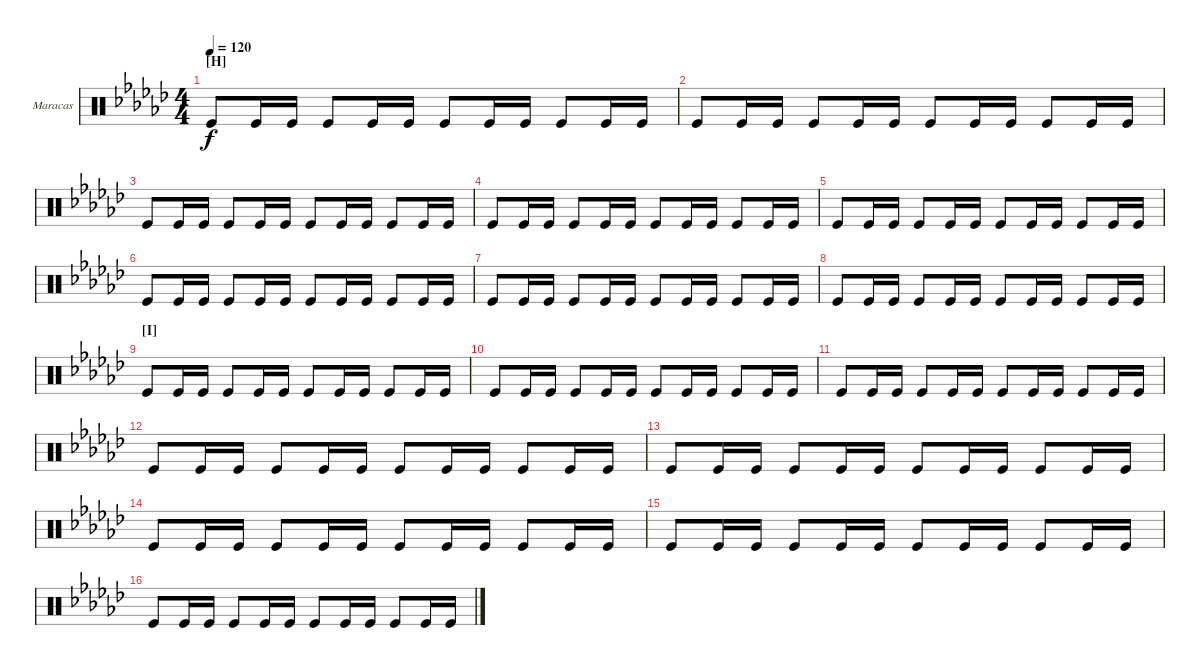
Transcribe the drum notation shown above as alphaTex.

\defaultSystemsLayout 4
\bracketExtendMode groupsimilarinstruments
\firstSystemTrackNameOrientation horizontal
\otherSystemsTrackNameOrientation horizontal
\track ("Maracas" "Maracas") {instrument percussion}
\staff {score}
\articulation defaults
\ts (4 4)
\section ("H" "")
\tempo 120
\clef neutral
\ks ebminor "Kick (hit)".8{dy f} "Kick (hit)".16 "Kick (hit)".16 "Kick (hit)".8 "Kick (hit)".16 "Kick (hit)".16 "Kick (hit)".8 "Kick (hit)".16 "Kick (hit)".16 "Kick (hit)".8 "Kick (hit)".16 "Kick (hit)".16
|
"Kick (hit)".8 "Kick (hit)".16 "Kick (hit)".16 "Kick (hit)".8 "Kick (hit)".16 "Kick (hit)".16 "Kick (hit)".8 "Kick (hit)".16 "Kick (hit)".16 "Kick (hit)".8 "Kick (hit)".16 "Kick (hit)".16 |
"Kick (hit)".8 "Kick (hit)".16 "Kick (hit)".16 "Kick (hit)".8 "Kick (hit)".16 "Kick (hit)".16 "Kick (hit)".8 "Kick (hit)".16 "Kick (hit)".16 "Kick (hit)".8 "Kick (hit)".16 "Kick (hit)".16 |
"Kick (hit)".8 "Kick (hit)".16 "Kick (hit)".16 "Kick (hit)".8 "Kick (hit)".16 "Kick (hit)".16 "Kick (hit)".8 "Kick (hit)".16 "Kick (hit)".16 "Kick (hit)".8 "Kick (hit)".16 "Kick (hit)".16 |
"Kick (hit)".8 "Kick (hit)".16 "Kick (hit)".16 "Kick (hit)".8 "Kick (hit)".16 "Kick (hit)".16 "Kick (hit)".8 "Kick (hit)".16 "Kick (hit)".16 "Kick (hit)".8 "Kick (hit)".16 "Kick (hit)".16 |
"Kick (hit)".8 "Kick (hit)".16 "Kick (hit)".16 "Kick (hit)".8 "Kick (hit)".16 "Kick (hit)".16 "Kick (hit)".8 "Kick (hit)".16 "Kick (hit)".16 "Kick (hit)".8 "Kick (hit)".16 "Kick (hit)".16 |
"Kick (hit)".8 "Kick (hit)".16 "Kick (hit)".16 "Kick (hit)".8 "Kick (hit)".16 "Kick (hit)".16 "Kick (hit)".8 "Kick (hit)".16 "Kick (hit)".16 "Kick (hit)".8 "Kick (hit)".16 "Kick (hit)".16 |
"Kick (hit)".8 "Kick (hit)".16 "Kick (hit)".16 "Kick (hit)".8 "Kick (hit)".16 "Kick (hit)".16 "Kick (hit)".8 "Kick (hit)".16 "Kick (hit)".16 "Kick (hit)".8 "Kick (hit)".16 "Kick (hit)".16 |
\section ("I" "")
"Kick (hit)".8 "Kick (hit)".16 "Kick (hit)".16 "Kick (hit)".8 "Kick (hit)".16 "Kick (hit)".16 "Kick (hit)".8 "Kick (hit)".16 "Kick (hit)".16 "Kick (hit)".8 "Kick (hit)".16 "Kick (hit)".16 |
"Kick (hit)".8 "Kick (hit)".16 "Kick (hit)".16 "Kick (hit)".8 "Kick (hit)".16 "Kick (hit)".16 "Kick (hit)".8 "Kick (hit)".16 "Kick (hit)".16 "Kick (hit)".8 "Kick (hit)".16 "Kick (hit)".16 |
"Kick (hit)".8 "Kick (hit)".16 "Kick (hit)".16 "Kick (hit)".8 "Kick (hit)".16 "Kick (hit)".16 "Kick (hit)".8 "Kick (hit)".16 "Kick (hit)".16 "Kick (hit)".8 "Kick (hit)".16 "Kick (hit)".16 |
"Kick (hit)".8 "Kick (hit)".16 "Kick (hit)".16 "Kick (hit)".8 "Kick (hit)".16 "Kick (hit)".16 "Kick (hit)".8 "Kick (hit)".16 "Kick (hit)".16 "Kick (hit)".8 "Kick (hit)".16 "Kick (hit)".16 |
"Kick (hit)".8 "Kick (hit)".16 "Kick (hit)".16 "Kick (hit)".8 "Kick (hit)".16 "Kick (hit)".16 "Kick (hit)".8 "Kick (hit)".16 "Kick (hit)".16 "Kick (hit)".8 "Kick (hit)".16 "Kick (hit)".16 |
"Kick (hit)".8 "Kick (hit)".16 "Kick (hit)".16 "Kick (hit)".8 "Kick (hit)".16 "Kick (hit)".16 "Kick (hit)".8 "Kick (hit)".16 "Kick (hit)".16 "Kick (hit)".8 "Kick (hit)".16 "Kick (hit)".16 |
"Kick (hit)".8 "Kick (hit)".16 "Kick (hit)".16 "Kick (hit)".8 "Kick (hit)".16 "Kick (hit)".16 "Kick (hit)".8 "Kick (hit)".16 "Kick (hit)".16 "Kick (hit)".8 "Kick (hit)".16 "Kick (hit)".16 |
"Kick (hit)".8 "Kick (hit)".16 "Kick (hit)".16 "Kick (hit)".8 "Kick (hit)".16 "Kick (hit)".16 "Kick (hit)".8 "Kick (hit)".16 "Kick (hit)".16 "Kick (hit)".8 "Kick (hit)".16 "Kick (hit)".16
